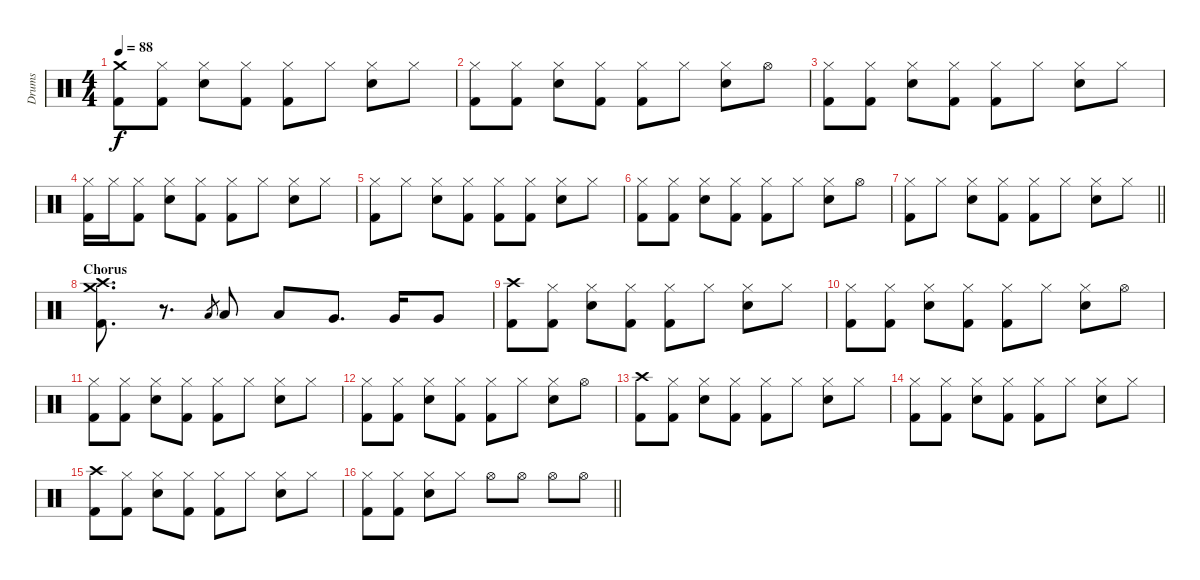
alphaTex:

\track ("Drums" "Drums") {instrument percussion}
\staff {score}
\articulation defaults
\ts (4 4)
\tempo 88
\clef neutral
\ks c
("Crash medium (hit)" "Kick (hit) 2").8{dy f} ("Hi-Hat (closed)" "Kick (hit) 2").8 ("Hi-Hat (closed)" "Snare (hit) 2").8 ("Hi-Hat (closed)" "Kick (hit) 2").8 ("Hi-Hat (closed)" "Kick (hit) 2").8 "Hi-Hat (closed)".8 ("Hi-Hat (closed)" "Snare (hit) 2").8 "Hi-Hat (closed)".8 |
("Hi-Hat (closed)" "Kick (hit) 2").8 ("Hi-Hat (closed)" "Kick (hit) 2").8 ("Hi-Hat (closed)" "Snare (hit) 2").8 ("Hi-Hat (closed)" "Kick (hit) 2").8 ("Hi-Hat (closed)" "Kick (hit) 2").8 "Hi-Hat (closed)".8 ("Hi-Hat (closed)" "Snare (hit) 2").8 "Hi-Hat (open)".8 |
("Hi-Hat (closed)" "Kick (hit) 2").8 ("Hi-Hat (closed)" "Kick (hit) 2").8 ("Hi-Hat (closed)" "Snare (hit) 2").8 ("Hi-Hat (closed)" "Kick (hit) 2").8 ("Hi-Hat (closed)" "Kick (hit) 2").8 "Hi-Hat (closed)".8 ("Hi-Hat (closed)" "Snare (hit) 2").8 "Hi-Hat (closed)".8 |
("Hi-Hat (closed)" "Kick (hit) 2").16 "Hi-Hat (closed)".16 ("Hi-Hat (closed)" "Kick (hit) 2").8 ("Hi-Hat (closed)" "Snare (hit) 2").8 ("Hi-Hat (closed)" "Kick (hit) 2").8 ("Hi-Hat (closed)" "Kick (hit) 2").8 "Hi-Hat (closed)".8 ("Hi-Hat (closed)" "Snare (hit) 2").8 "Hi-Hat (closed)".8 |
("Hi-Hat (closed)" "Kick (hit) 2").8 "Hi-Hat (closed)".8 ("Hi-Hat (closed)" "Snare (hit) 2").8 ("Hi-Hat (closed)" "Kick (hit) 2").8 ("Hi-Hat (closed)" "Kick (hit) 2").8 ("Hi-Hat (closed)" "Kick (hit) 2").8 ("Hi-Hat (closed)" "Snare (hit) 2").8 "Hi-Hat (closed)".8 |
("Hi-Hat (closed)" "Kick (hit) 2").8 ("Hi-Hat (closed)" "Kick (hit) 2").8 ("Hi-Hat (closed)" "Snare (hit) 2").8 ("Hi-Hat (closed)" "Kick (hit) 2").8 ("Hi-Hat (closed)" "Kick (hit) 2").8 "Hi-Hat (closed)".8 ("Hi-Hat (closed)" "Snare (hit) 2").8 "Hi-Hat (open)".8 |
\barLineRight lightlight
("Hi-Hat (closed)" "Kick (hit) 2").8 "Hi-Hat (closed)".8 ("Hi-Hat (closed)" "Snare (hit) 2").8 ("Hi-Hat (closed)" "Kick (hit) 2").8 ("Hi-Hat (closed)" "Kick (hit) 2").8 "Hi-Hat (closed)".8 ("Hi-Hat (closed)" "Snare (hit) 2").8 "Hi-Hat (closed)".8 |
\section ("" "Chorus")
("Crash high (hit)" "Crash medium (hit)" "Kick (hit) 2").8{d} r.8{d} "Low Tom (hit)".8{gr} "Low Tom (hit)".8 "Low Tom (hit)".8 "Very Low Tom (hit)".8{d} "Very Low Tom (hit)".16 "Very Low Tom (hit)".8 |
("Crash high (hit)" "Kick (hit) 2").8 ("Hi-Hat (closed)" "Kick (hit) 2").8 ("Hi-Hat (closed)" "Snare (hit) 2").8 ("Hi-Hat (closed)" "Kick (hit) 2").8 ("Hi-Hat (closed)" "Kick (hit) 2").8 "Hi-Hat (closed)".8 ("Hi-Hat (closed)" "Snare (hit) 2").8 "Hi-Hat (closed)".8 |
("Hi-Hat (closed)" "Kick (hit) 2").8 ("Hi-Hat (closed)" "Kick (hit) 2").8 ("Hi-Hat (closed)" "Snare (hit) 2").8 ("Hi-Hat (closed)" "Kick (hit) 2").8 ("Hi-Hat (closed)" "Kick (hit) 2").8 "Hi-Hat (closed)".8 ("Hi-Hat (closed)" "Snare (hit) 2").8 "Hi-Hat (open)".8 |
("Hi-Hat (closed)" "Kick (hit) 2").8 ("Hi-Hat (closed)" "Kick (hit) 2").8 ("Hi-Hat (closed)" "Snare (hit) 2").8 ("Hi-Hat (closed)" "Kick (hit) 2").8 ("Hi-Hat (closed)" "Kick (hit) 2").8 "Hi-Hat (closed)".8 ("Hi-Hat (closed)" "Snare (hit) 2").8 "Hi-Hat (closed)".8 |
("Hi-Hat (closed)" "Kick (hit) 2").8 ("Hi-Hat (closed)" "Kick (hit) 2").8 ("Hi-Hat (closed)" "Snare (hit) 2").8 ("Hi-Hat (closed)" "Kick (hit) 2").8 ("Hi-Hat (closed)" "Kick (hit) 2").8 "Hi-Hat (closed)".8 ("Hi-Hat (closed)" "Snare (hit) 2").8 "Hi-Hat (open)".8 |
("Crash high (hit)" "Kick (hit) 2").8 ("Hi-Hat (closed)" "Kick (hit) 2").8 ("Hi-Hat (closed)" "Snare (hit) 2").8 ("Hi-Hat (closed)" "Kick (hit) 2").8 ("Hi-Hat (closed)" "Kick (hit) 2").8 "Hi-Hat (closed)".8 ("Hi-Hat (closed)" "Snare (hit) 2").8 "Hi-Hat (closed)".8 |
("Hi-Hat (closed)" "Kick (hit) 2").8 ("Hi-Hat (closed)" "Kick (hit) 2").8 ("Hi-Hat (closed)" "Snare (hit) 2").8 ("Hi-Hat (closed)" "Kick (hit) 2").8 ("Hi-Hat (closed)" "Kick (hit) 2").8 "Hi-Hat (closed)".8 ("Hi-Hat (closed)" "Snare (hit) 2").8 "Hi-Hat (closed)".8 |
("Crash high (hit)" "Kick (hit) 2").8 ("Hi-Hat (closed)" "Kick (hit) 2").8 ("Hi-Hat (closed)" "Snare (hit) 2").8 ("Hi-Hat (closed)" "Kick (hit) 2").8 ("Hi-Hat (closed)" "Kick (hit) 2").8 "Hi-Hat (closed)".8 ("Hi-Hat (closed)" "Snare (hit) 2").8 "Hi-Hat (closed)".8 |
\barLineRight lightlight
("Hi-Hat (closed)" "Kick (hit) 2").8 ("Hi-Hat (closed)" "Kick (hit) 2").8 ("Hi-Hat (closed)" "Snare (hit) 2").8 "Hi-Hat (closed)".8 "Hi-Hat (open)".8 "Hi-Hat (open)".8 "Hi-Hat (open)".8 "Hi-Hat (open)".8
